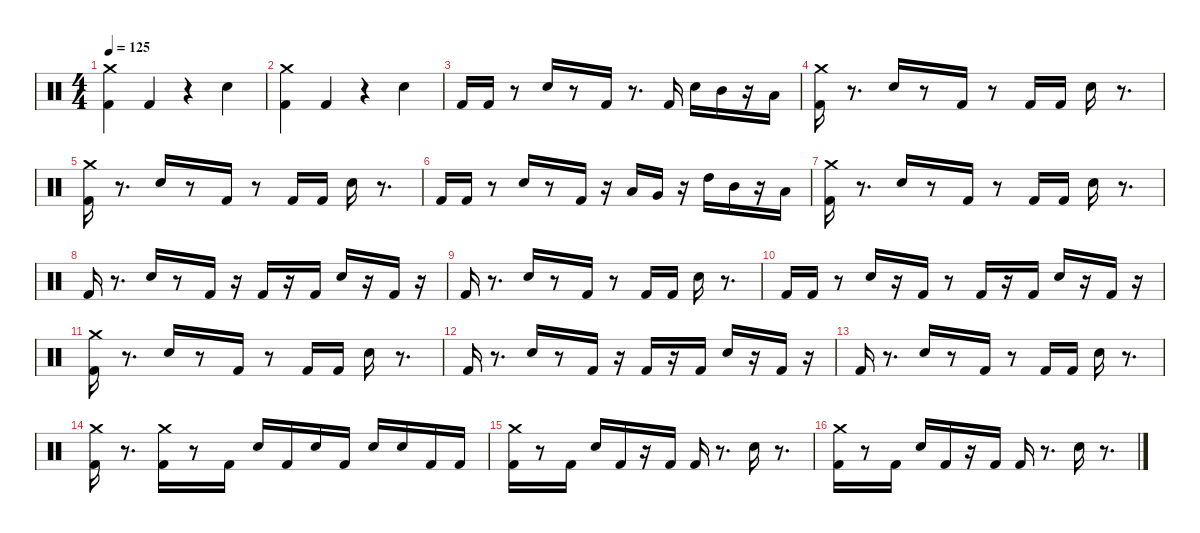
\defaultSystemsLayout 4
\hideDynamics
\bracketExtendMode nobrackets
\singleTrackTrackNamePolicy hidden
\multiTrackTrackNamePolicy hidden
\firstSystemTrackNameMode fullname
\firstSystemTrackNameOrientation horizontal
\otherSystemsTrackNameOrientation horizontal
\track ("Bateria" "drm.") {instrument percussion}
\staff {score}
\articulation defaults
\ts (4 4)
\tempo 125
\clef neutral
\ks c
("Crash medium (hit)" "Kick (hit) 2").4{dy f beam Down} "Kick (hit) 2".4{beam Up} r.4{beam Up} "Snare (hit) 2".4{beam Down} |
("Crash medium (hit)" "Kick (hit) 2").4{beam Down} "Kick (hit) 2".4{beam Up} r.4{beam Up} "Snare (hit) 2".4{beam Down} |
"Kick (hit) 2".16{beam Up} "Kick (hit) 2".16{beam Up} r.8{beam Up} "Snare (hit) 2".16{beam Up} r.8{beam Up} "Kick (hit) 2".16{beam Up} r.8{d beam Up} "Kick (hit) 2".16{beam Up} "Snare (hit) 2".16{beam Down} "Mid Tom (hit)".16{beam Down} r.16{beam Down} "Low Tom (hit)".16{beam Down} |
("Crash medium (hit)" "Kick (hit) 2").16{beam Down} r.8{d beam Down} "Snare (hit) 2".16{beam Up} r.8{beam Up} "Kick (hit) 2".16{beam Up} r.8{beam Up} "Kick (hit) 2".16{beam Up} "Kick (hit) 2".16{beam Up} "Snare (hit) 2".16{beam Down} r.8{d beam Down} |
("Crash medium (hit)" "Kick (hit) 2").16{beam Down} r.8{d beam Down} "Snare (hit) 2".16{beam Up} r.8{beam Up} "Kick (hit) 2".16{beam Up} r.8{beam Up} "Kick (hit) 2".16{beam Up} "Kick (hit) 2".16{beam Up} "Snare (hit) 2".16{beam Down} r.8{d beam Down} |
"Kick (hit) 2".16{beam Up} "Kick (hit) 2".16{beam Up} r.8{beam Up} "Snare (hit) 2".16{beam Up} r.8{beam Up} "Kick (hit) 2".16{beam Up} r.16{beam Up} "Low Tom (hit)".16{beam Up} "Very Low Tom (hit)".16{beam Up} r.16{beam Up} "High Tom (hit)".16{beam Down} "Mid Tom (hit)".16{beam Down} r.16{beam Down} "Low Tom (hit)".16{beam Down} |
("Crash medium (hit)" "Kick (hit) 2").16{beam Down} r.8{d beam Down} "Snare (hit) 2".16{beam Up} r.8{beam Up} "Kick (hit) 2".16{beam Up} r.8{beam Up} "Kick (hit) 2".16{beam Up} "Kick (hit) 2".16{beam Up} "Snare (hit) 2".16{beam Down} r.8{d beam Down} |
"Kick (hit) 2".16{beam Up} r.8{d beam Up} "Snare (hit) 2".16{beam Up} r.8{beam Up} "Kick (hit) 2".16{beam Up} r.16{beam Up} "Kick (hit) 2".16{beam Up} r.16{beam Up} "Kick (hit) 2".16{beam Up} "Snare (hit) 2".16{beam Up} r.16{beam Up} "Kick (hit) 2".16{beam Up} r.16{beam Up} |
"Kick (hit) 2".16{beam Up} r.8{d beam Up} "Snare (hit) 2".16{beam Up} r.8{beam Up} "Kick (hit) 2".16{beam Up} r.8{beam Up} "Kick (hit) 2".16{beam Up} "Kick (hit) 2".16{beam Up} "Snare (hit) 2".16{beam Down} r.8{d beam Down} |
"Kick (hit) 2".16{beam Up} "Kick (hit) 2".16{beam Up} r.8{beam Up} "Snare (hit) 2".16{beam Up} r.16{beam Up} "Kick (hit) 2".16{beam Up} r.8{beam Up} "Kick (hit) 2".16{beam Up} r.16{beam Up} "Kick (hit) 2".16{beam Up} "Snare (hit) 2".16{beam Up} r.16{beam Up} "Kick (hit) 2".16{beam Up} r.16{beam Up} |
("Crash medium (hit)" "Kick (hit) 2").16{beam Down} r.8{d beam Down} "Snare (hit) 2".16{beam Up} r.8{beam Up} "Kick (hit) 2".16{beam Up} r.8{beam Up} "Kick (hit) 2".16{beam Up} "Kick (hit) 2".16{beam Up} "Snare (hit) 2".16{beam Down} r.8{d beam Down} |
"Kick (hit) 2".16{beam Up} r.8{d beam Up} "Snare (hit) 2".16{beam Up} r.8{beam Up} "Kick (hit) 2".16{beam Up} r.16{beam Up} "Kick (hit) 2".16{beam Up} r.16{beam Up} "Kick (hit) 2".16{beam Up} "Snare (hit) 2".16{beam Up} r.16{beam Up} "Kick (hit) 2".16{beam Up} r.16{beam Up} |
"Kick (hit) 2".16{beam Up} r.8{d beam Up} "Snare (hit) 2".16{beam Up} r.8{beam Up} "Kick (hit) 2".16{beam Up} r.8{beam Up} "Kick (hit) 2".16{beam Up} "Kick (hit) 2".16{beam Up} "Snare (hit) 2".16{beam Down} r.8{d beam Down} |
("Crash medium (hit)" "Kick (hit) 2").16{beam Down} r.8{d beam Down} ("Crash medium (hit)" "Kick (hit) 2").16{beam Down} r.8{beam Down} "Kick (hit) 2".16{beam Down} "Snare (hit) 2".16{beam Up} "Kick (hit) 2".16{beam Up} "Snare (hit) 2".16{beam Up} "Kick (hit) 2".16{beam Up} "Snare (hit) 2".16{beam Up} "Snare (hit) 2".16{beam Up} "Kick (hit) 2".16{beam Up} "Kick (hit) 2".16{beam Up} |
("Kick (hit) 2" "Crash medium (hit)").16{beam Down} r.8{beam Down} "Kick (hit) 2".16{beam Down} "Snare (hit) 2".16{beam Up} "Kick (hit) 2".16{beam Up} r.16{beam Up} "Kick (hit) 2".16{beam Up} "Kick (hit) 2".16{beam Up} r.8{d beam Up} "Snare (hit) 2".16{beam Down} r.8{d beam Down} |
("Kick (hit) 2" "Crash medium (hit)").16{beam Down} r.8{beam Down} "Kick (hit) 2".16{beam Down} "Snare (hit) 2".16{beam Up} "Kick (hit) 2".16{beam Up} r.16{beam Up} "Kick (hit) 2".16{beam Up} "Kick (hit) 2".16{beam Up} r.8{d beam Up} "Snare (hit) 2".16{beam Down} r.8{d beam Down}
